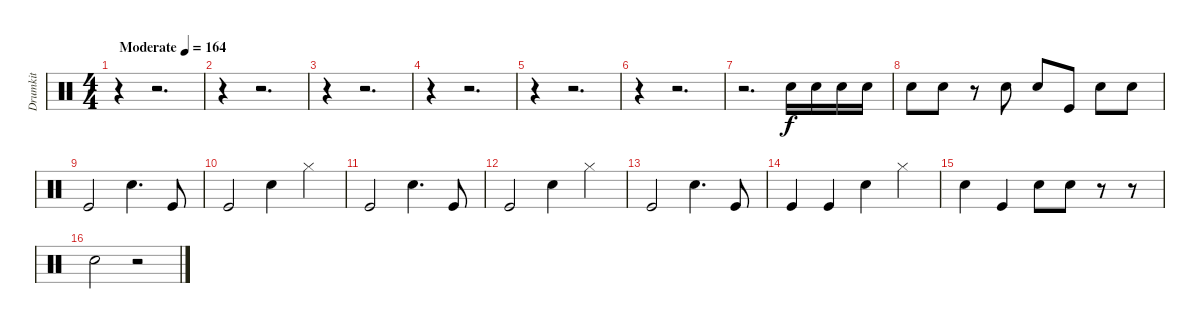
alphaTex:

\track ("Drumkit" "Drumkit") {instrument percussion}
\staff {score}
\articulation defaults
\ts (4 4)
\tempo (164 "Moderate")
\clef neutral
\ks c
r.4{dy f} r.2{d} |
r.4 r.2{d} |
r.4 r.2{d} |
r.4 r.2{d} |
r.4 r.2{d} |
r.4 r.2{d} |
r.2{d} "Snare (hit) 2".16 "Snare (hit) 2".16 "Snare (hit) 2".16 "Snare (hit) 2".16 |
"Snare (hit) 2".8 "Snare (hit) 2".8 r.8 "Snare (hit) 2".8 "Snare (hit) 2".8 "Kick (hit)".8 "Snare (hit) 2".8 "Snare (hit) 2".8 |
"Kick (hit)".2 "Snare (hit) 2".4{d} "Kick (hit)".8 |
"Kick (hit)".2 "Snare (hit) 2".4 "Hi-Hat (closed)".4 |
"Kick (hit)".2 "Snare (hit) 2".4{d} "Kick (hit)".8 |
"Kick (hit)".2 "Snare (hit) 2".4 "Hi-Hat (closed)".4 |
"Kick (hit)".2 "Snare (hit) 2".4{d} "Kick (hit)".8 |
"Kick (hit)".4 "Kick (hit)".4 "Snare (hit) 2".4 "Hi-Hat (closed)".4 |
"Snare (hit) 2".4 "Kick (hit)".4 "Snare (hit) 2".8 "Snare (hit) 2".8 r.8 r.8 |
"Snare (hit) 2".2 r.2
